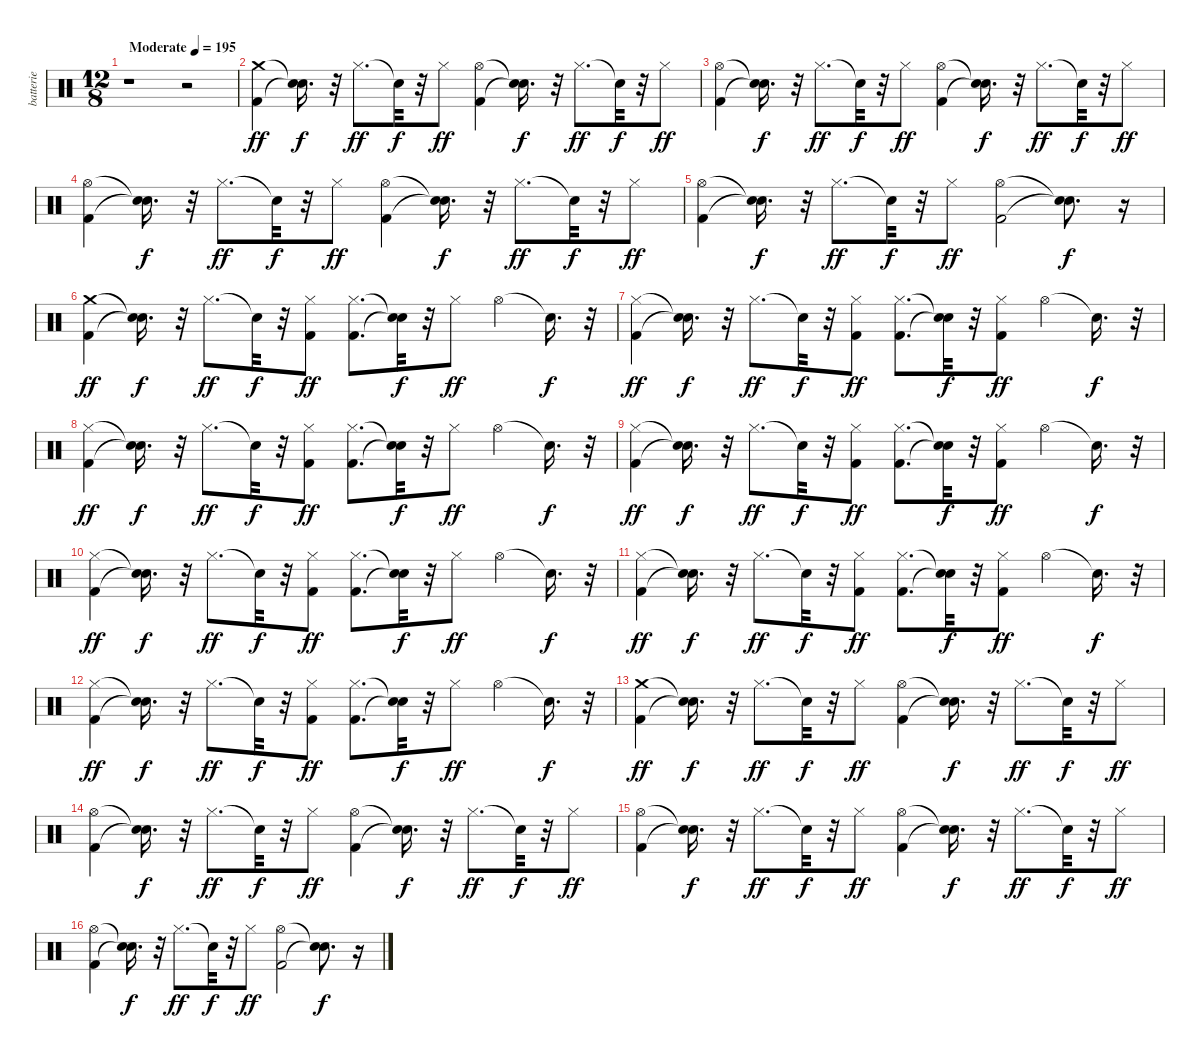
\track ("batterie" "batterie") {instrument percussion}
\staff {score}
\articulation defaults
\ts (12 8)
\tempo (195 "Moderate")
\clef neutral
\ks c
r.1{dy ff} r.2 |
("Kick (hit) 2" "Crash medium (hit)").4 ("Snare (hit)"{t} "Snare (hit)"{t}).16{d dy f} r.32 "Hi-Hat (closed)".8{d dy ff} "Snare (hit)"{t}.32{dy f} r.32 "Hi-Hat (closed)".8{dy ff} ("Kick (hit) 2" "Hi-Hat (open)").4 ("Snare (hit)"{t} "Snare (hit)"{t}).16{d dy f} r.32 "Hi-Hat (closed)".8{d dy ff} "Snare (hit)"{t}.32{dy f} r.32 "Hi-Hat (closed)".8{dy ff} |
("Kick (hit) 2" "Hi-Hat (open)").4 ("Snare (hit)"{t} "Snare (hit)"{t}).16{d dy f} r.32 "Hi-Hat (closed)".8{d dy ff} "Snare (hit)"{t}.32{dy f} r.32 "Hi-Hat (closed)".8{dy ff} ("Kick (hit) 2" "Hi-Hat (open)").4 ("Snare (hit)"{t} "Snare (hit)"{t}).16{d dy f} r.32 "Hi-Hat (closed)".8{d dy ff} "Snare (hit)"{t}.32{dy f} r.32 "Hi-Hat (closed)".8{dy ff} |
("Kick (hit) 2" "Hi-Hat (open)").4 ("Snare (hit)"{t} "Snare (hit)"{t}).16{d dy f} r.32 "Hi-Hat (closed)".8{d dy ff} "Snare (hit)"{t}.32{dy f} r.32 "Hi-Hat (closed)".8{dy ff} ("Kick (hit) 2" "Hi-Hat (open)").4 ("Snare (hit)"{t} "Snare (hit)"{t}).16{d dy f} r.32 "Hi-Hat (closed)".8{d dy ff} "Snare (hit)"{t}.32{dy f} r.32 "Hi-Hat (closed)".8{dy ff} |
("Kick (hit) 2" "Hi-Hat (open)").4 ("Snare (hit)"{t} "Snare (hit)"{t}).16{d dy f} r.32 "Hi-Hat (closed)".8{d dy ff} "Snare (hit)"{t}.32{dy f} r.32 "Hi-Hat (closed)".8{dy ff} ("Kick (hit) 2" "Hi-Hat (open)").2 ("Snare (hit)"{t} "Snare (hit)"{t}).8{d dy f} r.16 |
("Kick (hit) 2" "Crash medium (hit)").4{dy ff} ("Snare (hit)"{t} "Snare (hit)"{t}).16{d dy f} r.32 "Hi-Hat (closed)".8{d dy ff} "Snare (hit)"{t}.32{dy f} r.32 ("Kick (hit) 2" "Hi-Hat (closed)").8{dy ff} ("Kick (hit) 2" "Hi-Hat (closed)").8{d} ("Snare (hit)"{t} "Snare (hit)"{t}).32{dy f} r.32 "Hi-Hat (closed)".8{dy ff} "Hi-Hat (open)".4 "Snare (hit)"{t}.16{d dy f} r.32 |
("Kick (hit) 2" "Hi-Hat (closed)").4{dy ff} ("Snare (hit)"{t} "Snare (hit)"{t}).16{d dy f} r.32 "Hi-Hat (closed)".8{d dy ff} "Snare (hit)"{t}.32{dy f} r.32 ("Kick (hit) 2" "Hi-Hat (closed)").8{dy ff} ("Kick (hit) 2" "Hi-Hat (closed)").8{d} ("Snare (hit)"{t} "Snare (hit)"{t}).32{dy f} r.32 ("Kick (hit) 2" "Hi-Hat (closed)").8{dy ff} "Hi-Hat (open)".4 "Snare (hit)"{t}.16{d dy f} r.32 |
("Kick (hit) 2" "Hi-Hat (closed)").4{dy ff} ("Snare (hit)"{t} "Snare (hit)"{t}).16{d dy f} r.32 "Hi-Hat (closed)".8{d dy ff} "Snare (hit)"{t}.32{dy f} r.32 ("Kick (hit) 2" "Hi-Hat (closed)").8{dy ff} ("Kick (hit) 2" "Hi-Hat (closed)").8{d} ("Snare (hit)"{t} "Snare (hit)"{t}).32{dy f} r.32 "Hi-Hat (closed)".8{dy ff} "Hi-Hat (open)".4 "Snare (hit)"{t}.16{d dy f} r.32 |
("Kick (hit) 2" "Hi-Hat (closed)").4{dy ff} ("Snare (hit)"{t} "Snare (hit)"{t}).16{d dy f} r.32 "Hi-Hat (closed)".8{d dy ff} "Snare (hit)"{t}.32{dy f} r.32 ("Kick (hit) 2" "Hi-Hat (closed)").8{dy ff} ("Kick (hit) 2" "Hi-Hat (closed)").8{d} ("Snare (hit)"{t} "Snare (hit)"{t}).32{dy f} r.32 ("Kick (hit) 2" "Hi-Hat (closed)").8{dy ff} "Hi-Hat (open)".4 "Snare (hit)"{t}.16{d dy f} r.32 |
("Kick (hit) 2" "Hi-Hat (closed)").4{dy ff} ("Snare (hit)"{t} "Snare (hit)"{t}).16{d dy f} r.32 "Hi-Hat (closed)".8{d dy ff} "Snare (hit)"{t}.32{dy f} r.32 ("Kick (hit) 2" "Hi-Hat (closed)").8{dy ff} ("Kick (hit) 2" "Hi-Hat (closed)").8{d} ("Snare (hit)"{t} "Snare (hit)"{t}).32{dy f} r.32 "Hi-Hat (closed)".8{dy ff} "Hi-Hat (open)".4 "Snare (hit)"{t}.16{d dy f} r.32 |
("Kick (hit) 2" "Hi-Hat (closed)").4{dy ff} ("Snare (hit)"{t} "Snare (hit)"{t}).16{d dy f} r.32 "Hi-Hat (closed)".8{d dy ff} "Snare (hit)"{t}.32{dy f} r.32 ("Kick (hit) 2" "Hi-Hat (closed)").8{dy ff} ("Kick (hit) 2" "Hi-Hat (closed)").8{d} ("Snare (hit)"{t} "Snare (hit)"{t}).32{dy f} r.32 ("Kick (hit) 2" "Hi-Hat (closed)").8{dy ff} "Hi-Hat (open)".4 "Snare (hit)"{t}.16{d dy f} r.32 |
("Kick (hit) 2" "Hi-Hat (closed)").4{dy ff} ("Snare (hit)"{t} "Snare (hit)"{t}).16{d dy f} r.32 "Hi-Hat (closed)".8{d dy ff} "Snare (hit)"{t}.32{dy f} r.32 ("Kick (hit) 2" "Hi-Hat (closed)").8{dy ff} ("Kick (hit) 2" "Hi-Hat (closed)").8{d} ("Snare (hit)"{t} "Snare (hit)"{t}).32{dy f} r.32 "Hi-Hat (closed)".8{dy ff} "Hi-Hat (open)".4 "Snare (hit)"{t}.16{d dy f} r.32 |
("Kick (hit) 2" "Crash medium (hit)").4{dy ff} ("Snare (hit)"{t} "Snare (hit)"{t}).16{d dy f} r.32 "Hi-Hat (closed)".8{d dy ff} "Snare (hit)"{t}.32{dy f} r.32 "Hi-Hat (closed)".8{dy ff} ("Kick (hit) 2" "Hi-Hat (open)").4 ("Snare (hit)"{t} "Snare (hit)"{t}).16{d dy f} r.32 "Hi-Hat (closed)".8{d dy ff} "Snare (hit)"{t}.32{dy f} r.32 "Hi-Hat (closed)".8{dy ff} |
("Kick (hit) 2" "Hi-Hat (open)").4 ("Snare (hit)"{t} "Snare (hit)"{t}).16{d dy f} r.32 "Hi-Hat (closed)".8{d dy ff} "Snare (hit)"{t}.32{dy f} r.32 "Hi-Hat (closed)".8{dy ff} ("Kick (hit) 2" "Hi-Hat (open)").4 ("Snare (hit)"{t} "Snare (hit)"{t}).16{d dy f} r.32 "Hi-Hat (closed)".8{d dy ff} "Snare (hit)"{t}.32{dy f} r.32 "Hi-Hat (closed)".8{dy ff} |
("Kick (hit) 2" "Hi-Hat (open)").4 ("Snare (hit)"{t} "Snare (hit)"{t}).16{d dy f} r.32 "Hi-Hat (closed)".8{d dy ff} "Snare (hit)"{t}.32{dy f} r.32 "Hi-Hat (closed)".8{dy ff} ("Kick (hit) 2" "Hi-Hat (open)").4 ("Snare (hit)"{t} "Snare (hit)"{t}).16{d dy f} r.32 "Hi-Hat (closed)".8{d dy ff} "Snare (hit)"{t}.32{dy f} r.32 "Hi-Hat (closed)".8{dy ff} |
("Kick (hit) 2" "Hi-Hat (open)").4 ("Snare (hit)"{t} "Snare (hit)"{t}).16{d dy f} r.32 "Hi-Hat (closed)".8{d dy ff} "Snare (hit)"{t}.32{dy f} r.32 "Hi-Hat (closed)".8{dy ff} ("Kick (hit) 2" "Hi-Hat (open)").2 ("Snare (hit)"{t} "Snare (hit)"{t}).8{d dy f} r.16
